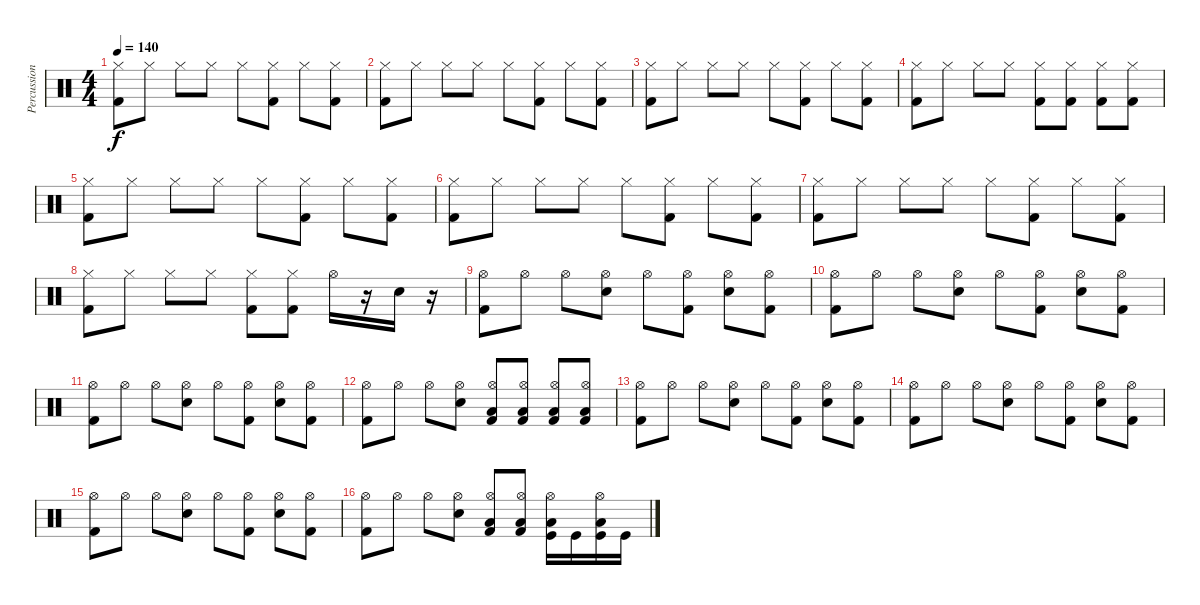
\track ("Percussion" "Percussion") {instrument percussion}
\staff {score}
\articulation defaults
\ts (4 4)
\tempo 140
\clef neutral
\ks c
("Hi-Hat (closed)" "Kick (hit) 2").8{dy f} "Hi-Hat (closed)".8 "Hi-Hat (closed)".8 "Hi-Hat (closed)".8 "Hi-Hat (closed)".8 ("Hi-Hat (closed)" "Kick (hit) 2").8 "Hi-Hat (closed)".8 ("Hi-Hat (closed)" "Kick (hit) 2").8 |
("Hi-Hat (closed)" "Kick (hit) 2").8 "Hi-Hat (closed)".8 "Hi-Hat (closed)".8 "Hi-Hat (closed)".8 "Hi-Hat (closed)".8 ("Hi-Hat (closed)" "Kick (hit) 2").8 "Hi-Hat (closed)".8 ("Hi-Hat (closed)" "Kick (hit) 2").8 |
("Hi-Hat (closed)" "Kick (hit) 2").8 "Hi-Hat (closed)".8 "Hi-Hat (closed)".8 "Hi-Hat (closed)".8 "Hi-Hat (closed)".8 ("Hi-Hat (closed)" "Kick (hit) 2").8 "Hi-Hat (closed)".8 ("Hi-Hat (closed)" "Kick (hit) 2").8 |
("Hi-Hat (closed)" "Kick (hit) 2").8 "Hi-Hat (closed)".8 "Hi-Hat (closed)".8 "Hi-Hat (closed)".8 ("Hi-Hat (closed)" "Kick (hit) 2").8 ("Hi-Hat (closed)" "Kick (hit) 2").8 ("Hi-Hat (closed)" "Kick (hit) 2").8 ("Hi-Hat (closed)" "Kick (hit) 2").8 |
("Hi-Hat (closed)" "Kick (hit) 2").8 "Hi-Hat (closed)".8 "Hi-Hat (closed)".8 "Hi-Hat (closed)".8 "Hi-Hat (closed)".8 ("Hi-Hat (closed)" "Kick (hit) 2").8 "Hi-Hat (closed)".8 ("Hi-Hat (closed)" "Kick (hit) 2").8 |
("Hi-Hat (closed)" "Kick (hit) 2").8 "Hi-Hat (closed)".8 "Hi-Hat (closed)".8 "Hi-Hat (closed)".8 "Hi-Hat (closed)".8 ("Hi-Hat (closed)" "Kick (hit) 2").8 "Hi-Hat (closed)".8 ("Hi-Hat (closed)" "Kick (hit) 2").8 |
("Hi-Hat (closed)" "Kick (hit) 2").8 "Hi-Hat (closed)".8 "Hi-Hat (closed)".8 "Hi-Hat (closed)".8 "Hi-Hat (closed)".8 ("Hi-Hat (closed)" "Kick (hit) 2").8 "Hi-Hat (closed)".8 ("Hi-Hat (closed)" "Kick (hit) 2").8 |
("Hi-Hat (closed)" "Kick (hit) 2").8 "Hi-Hat (closed)".8 "Hi-Hat (closed)".8 "Hi-Hat (closed)".8 ("Hi-Hat (closed)" "Kick (hit) 2").8 ("Hi-Hat (closed)" "Kick (hit) 2").8 "Hi-Hat (open)".16 r.16 "Electric Snare (hit)".16 r.16 |
("Hi-Hat (open)" "Kick (hit) 2").8 "Hi-Hat (open)".8 "Hi-Hat (open)".8 ("Hi-Hat (open)" "Electric Snare (hit)").8 "Hi-Hat (open)".8 ("Hi-Hat (open)" "Kick (hit) 2").8 ("Hi-Hat (open)" "Electric Snare (hit)").8 ("Hi-Hat (open)" "Kick (hit) 2").8 |
("Hi-Hat (open)" "Kick (hit) 2").8 "Hi-Hat (open)".8 "Hi-Hat (open)".8 ("Hi-Hat (open)" "Electric Snare (hit)").8 "Hi-Hat (open)".8 ("Hi-Hat (open)" "Kick (hit) 2").8 ("Hi-Hat (open)" "Electric Snare (hit)").8 ("Hi-Hat (open)" "Kick (hit) 2").8 |
("Hi-Hat (open)" "Kick (hit) 2").8 "Hi-Hat (open)".8 "Hi-Hat (open)".8 ("Hi-Hat (open)" "Electric Snare (hit)").8 "Hi-Hat (open)".8 ("Hi-Hat (open)" "Kick (hit) 2").8 ("Hi-Hat (open)" "Electric Snare (hit)").8 ("Hi-Hat (open)" "Kick (hit) 2").8 |
("Hi-Hat (open)" "Kick (hit) 2").8 "Hi-Hat (open)".8 "Hi-Hat (open)".8 ("Hi-Hat (open)" "Electric Snare (hit)").8 ("Hi-Hat (open)" "Low Floor Tom (hit)" "Kick (hit) 2").8 ("Hi-Hat (open)" "Low Floor Tom (hit)" "Kick (hit) 2").8 ("Hi-Hat (open)" "Low Floor Tom (hit)" "Kick (hit) 2").8 ("Hi-Hat (open)" "Low Floor Tom (hit)" "Kick (hit) 2").8 |
("Hi-Hat (open)" "Kick (hit) 2").8 "Hi-Hat (open)".8 "Hi-Hat (open)".8 ("Hi-Hat (open)" "Electric Snare (hit)").8 "Hi-Hat (open)".8 ("Hi-Hat (open)" "Kick (hit) 2").8 ("Hi-Hat (open)" "Electric Snare (hit)").8 ("Hi-Hat (open)" "Kick (hit) 2").8 |
("Hi-Hat (open)" "Kick (hit) 2").8 "Hi-Hat (open)".8 "Hi-Hat (open)".8 ("Hi-Hat (open)" "Electric Snare (hit)").8 "Hi-Hat (open)".8 ("Hi-Hat (open)" "Kick (hit) 2").8 ("Hi-Hat (open)" "Electric Snare (hit)").8 ("Hi-Hat (open)" "Kick (hit) 2").8 |
("Hi-Hat (open)" "Kick (hit) 2").8 "Hi-Hat (open)".8 "Hi-Hat (open)".8 ("Hi-Hat (open)" "Electric Snare (hit)").8 "Hi-Hat (open)".8 ("Hi-Hat (open)" "Kick (hit) 2").8 ("Hi-Hat (open)" "Electric Snare (hit)").8 ("Hi-Hat (open)" "Kick (hit) 2").8 |
("Hi-Hat (open)" "Kick (hit) 2").8 "Hi-Hat (open)".8 "Hi-Hat (open)".8 ("Hi-Hat (open)" "Electric Snare (hit)").8 ("Hi-Hat (open)" "Low Floor Tom (hit)" "Kick (hit) 2").8 ("Hi-Hat (open)" "Low Floor Tom (hit)" "Kick (hit) 2").8 ("Hi-Hat (open)" "Low Floor Tom (hit)" "Kick (hit)").16 "Kick (hit)".16 ("Hi-Hat (open)" "Low Floor Tom (hit)" "Kick (hit)").16 "Kick (hit)".16
